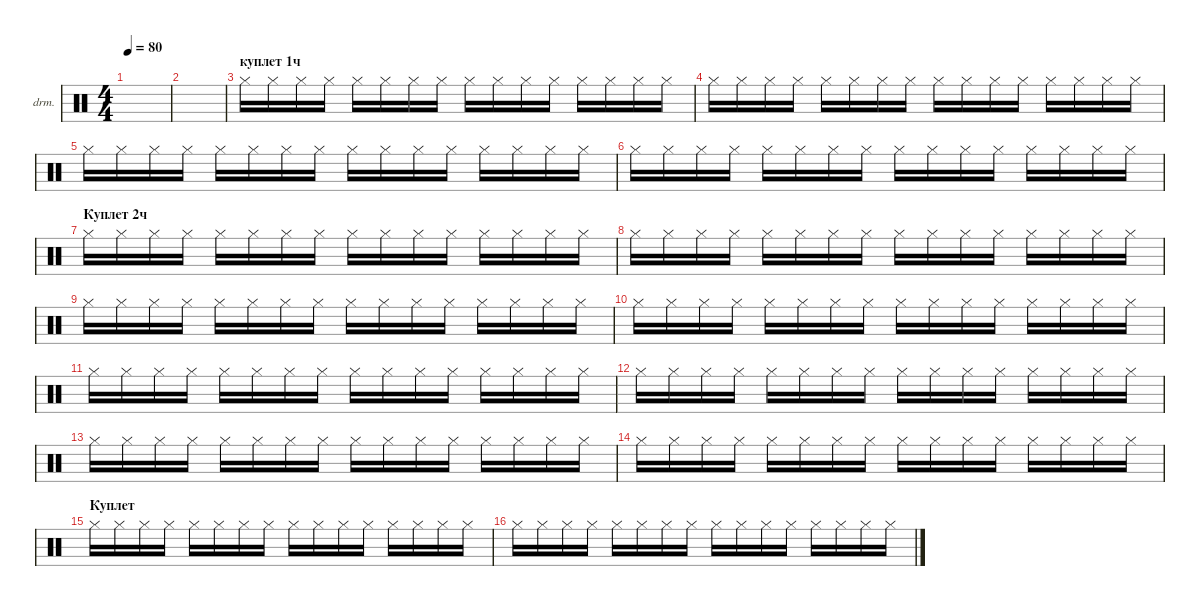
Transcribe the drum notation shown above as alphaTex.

\defaultSystemsLayout 4
\hideDynamics
\bracketExtendMode nobrackets
\firstSystemTrackNameOrientation horizontal
\otherSystemsTrackNameOrientation horizontal
\track ("Drumkit" "drm.") {instrument percussion}
\staff {score}
\articulation defaults
\ts (4 4)
\tempo 80
\clef neutral
\ks c
|
|
\section ("" "куплет 1ч")
"Hi-Hat (closed)".16{dy mp beam Down} "Hi-Hat (closed)".16{beam Down} "Hi-Hat (closed)".16{beam Down} "Hi-Hat (closed)".16{beam Down} "Hi-Hat (closed)".16{beam Down} "Hi-Hat (closed)".16{beam Down} "Hi-Hat (closed)".16{beam Down} "Hi-Hat (closed)".16{beam Down} "Hi-Hat (closed)".16{beam Down} "Hi-Hat (closed)".16{beam Down} "Hi-Hat (closed)".16{beam Down} "Hi-Hat (closed)".16{beam Down} "Hi-Hat (closed)".16{beam Down} "Hi-Hat (closed)".16{beam Down} "Hi-Hat (closed)".16{beam Down} "Hi-Hat (closed)".16{beam Down} |
"Hi-Hat (closed)".16{beam Down} "Hi-Hat (closed)".16{beam Down} "Hi-Hat (closed)".16{beam Down} "Hi-Hat (closed)".16{beam Down} "Hi-Hat (closed)".16{beam Down} "Hi-Hat (closed)".16{beam Down} "Hi-Hat (closed)".16{beam Down} "Hi-Hat (closed)".16{beam Down} "Hi-Hat (closed)".16{beam Down} "Hi-Hat (closed)".16{beam Down} "Hi-Hat (closed)".16{beam Down} "Hi-Hat (closed)".16{beam Down} "Hi-Hat (closed)".16{beam Down} "Hi-Hat (closed)".16{beam Down} "Hi-Hat (closed)".16{beam Down} "Hi-Hat (closed)".16{beam Down} |
"Hi-Hat (closed)".16{beam Down} "Hi-Hat (closed)".16{beam Down} "Hi-Hat (closed)".16{beam Down} "Hi-Hat (closed)".16{beam Down} "Hi-Hat (closed)".16{beam Down} "Hi-Hat (closed)".16{beam Down} "Hi-Hat (closed)".16{beam Down} "Hi-Hat (closed)".16{beam Down} "Hi-Hat (closed)".16{beam Down} "Hi-Hat (closed)".16{beam Down} "Hi-Hat (closed)".16{beam Down} "Hi-Hat (closed)".16{beam Down} "Hi-Hat (closed)".16{beam Down} "Hi-Hat (closed)".16{beam Down} "Hi-Hat (closed)".16{beam Down} "Hi-Hat (closed)".16{beam Down} |
"Hi-Hat (closed)".16{beam Down} "Hi-Hat (closed)".16{beam Down} "Hi-Hat (closed)".16{beam Down} "Hi-Hat (closed)".16{beam Down} "Hi-Hat (closed)".16{beam Down} "Hi-Hat (closed)".16{beam Down} "Hi-Hat (closed)".16{beam Down} "Hi-Hat (closed)".16{beam Down} "Hi-Hat (closed)".16{beam Down} "Hi-Hat (closed)".16{beam Down} "Hi-Hat (closed)".16{beam Down} "Hi-Hat (closed)".16{beam Down} "Hi-Hat (closed)".16{beam Down} "Hi-Hat (closed)".16{beam Down} "Hi-Hat (closed)".16{beam Down} "Hi-Hat (closed)".16{beam Down} |
\section ("" "Куплет 2ч")
"Hi-Hat (closed)".16{beam Down} "Hi-Hat (closed)".16{beam Down} "Hi-Hat (closed)".16{beam Down} "Hi-Hat (closed)".16{beam Down} "Hi-Hat (closed)".16{beam Down} "Hi-Hat (closed)".16{beam Down} "Hi-Hat (closed)".16{beam Down} "Hi-Hat (closed)".16{beam Down} "Hi-Hat (closed)".16{beam Down} "Hi-Hat (closed)".16{beam Down} "Hi-Hat (closed)".16{beam Down} "Hi-Hat (closed)".16{beam Down} "Hi-Hat (closed)".16{beam Down} "Hi-Hat (closed)".16{beam Down} "Hi-Hat (closed)".16{beam Down} "Hi-Hat (closed)".16{beam Down} |
"Hi-Hat (closed)".16{beam Down} "Hi-Hat (closed)".16{beam Down} "Hi-Hat (closed)".16{beam Down} "Hi-Hat (closed)".16{beam Down} "Hi-Hat (closed)".16{beam Down} "Hi-Hat (closed)".16{beam Down} "Hi-Hat (closed)".16{beam Down} "Hi-Hat (closed)".16{beam Down} "Hi-Hat (closed)".16{beam Down} "Hi-Hat (closed)".16{beam Down} "Hi-Hat (closed)".16{beam Down} "Hi-Hat (closed)".16{beam Down} "Hi-Hat (closed)".16{beam Down} "Hi-Hat (closed)".16{beam Down} "Hi-Hat (closed)".16{beam Down} "Hi-Hat (closed)".16{beam Down} |
"Hi-Hat (closed)".16{beam Down} "Hi-Hat (closed)".16{beam Down} "Hi-Hat (closed)".16{beam Down} "Hi-Hat (closed)".16{beam Down} "Hi-Hat (closed)".16{beam Down} "Hi-Hat (closed)".16{beam Down} "Hi-Hat (closed)".16{beam Down} "Hi-Hat (closed)".16{beam Down} "Hi-Hat (closed)".16{beam Down} "Hi-Hat (closed)".16{beam Down} "Hi-Hat (closed)".16{beam Down} "Hi-Hat (closed)".16{beam Down} "Hi-Hat (closed)".16{beam Down} "Hi-Hat (closed)".16{beam Down} "Hi-Hat (closed)".16{beam Down} "Hi-Hat (closed)".16{beam Down} |
"Hi-Hat (closed)".16{beam Down} "Hi-Hat (closed)".16{beam Down} "Hi-Hat (closed)".16{beam Down} "Hi-Hat (closed)".16{beam Down} "Hi-Hat (closed)".16{beam Down} "Hi-Hat (closed)".16{beam Down} "Hi-Hat (closed)".16{beam Down} "Hi-Hat (closed)".16{beam Down} "Hi-Hat (closed)".16{beam Down} "Hi-Hat (closed)".16{beam Down} "Hi-Hat (closed)".16{beam Down} "Hi-Hat (closed)".16{beam Down} "Hi-Hat (closed)".16{beam Down} "Hi-Hat (closed)".16{beam Down} "Hi-Hat (closed)".16{beam Down} "Hi-Hat (closed)".16{beam Down} |
"Hi-Hat (closed)".16{beam Down} "Hi-Hat (closed)".16{beam Down} "Hi-Hat (closed)".16{beam Down} "Hi-Hat (closed)".16{beam Down} "Hi-Hat (closed)".16{beam Down} "Hi-Hat (closed)".16{beam Down} "Hi-Hat (closed)".16{beam Down} "Hi-Hat (closed)".16{beam Down} "Hi-Hat (closed)".16{beam Down} "Hi-Hat (closed)".16{beam Down} "Hi-Hat (closed)".16{beam Down} "Hi-Hat (closed)".16{beam Down} "Hi-Hat (closed)".16{beam Down} "Hi-Hat (closed)".16{beam Down} "Hi-Hat (closed)".16{beam Down} "Hi-Hat (closed)".16{beam Down} |
"Hi-Hat (closed)".16{beam Down} "Hi-Hat (closed)".16{beam Down} "Hi-Hat (closed)".16{beam Down} "Hi-Hat (closed)".16{beam Down} "Hi-Hat (closed)".16{beam Down} "Hi-Hat (closed)".16{beam Down} "Hi-Hat (closed)".16{beam Down} "Hi-Hat (closed)".16{beam Down} "Hi-Hat (closed)".16{beam Down} "Hi-Hat (closed)".16{beam Down} "Hi-Hat (closed)".16{beam Down} "Hi-Hat (closed)".16{beam Down} "Hi-Hat (closed)".16{beam Down} "Hi-Hat (closed)".16{beam Down} "Hi-Hat (closed)".16{beam Down} "Hi-Hat (closed)".16{beam Down} |
"Hi-Hat (closed)".16{beam Down} "Hi-Hat (closed)".16{beam Down} "Hi-Hat (closed)".16{beam Down} "Hi-Hat (closed)".16{beam Down} "Hi-Hat (closed)".16{beam Down} "Hi-Hat (closed)".16{beam Down} "Hi-Hat (closed)".16{beam Down} "Hi-Hat (closed)".16{beam Down} "Hi-Hat (closed)".16{beam Down} "Hi-Hat (closed)".16{beam Down} "Hi-Hat (closed)".16{beam Down} "Hi-Hat (closed)".16{beam Down} "Hi-Hat (closed)".16{beam Down} "Hi-Hat (closed)".16{beam Down} "Hi-Hat (closed)".16{beam Down} "Hi-Hat (closed)".16{beam Down} |
"Hi-Hat (closed)".16{beam Down} "Hi-Hat (closed)".16{beam Down} "Hi-Hat (closed)".16{beam Down} "Hi-Hat (closed)".16{beam Down} "Hi-Hat (closed)".16{beam Down} "Hi-Hat (closed)".16{beam Down} "Hi-Hat (closed)".16{beam Down} "Hi-Hat (closed)".16{beam Down} "Hi-Hat (closed)".16{beam Down} "Hi-Hat (closed)".16{beam Down} "Hi-Hat (closed)".16{beam Down} "Hi-Hat (closed)".16{beam Down} "Hi-Hat (closed)".16{beam Down} "Hi-Hat (closed)".16{beam Down} "Hi-Hat (closed)".16{beam Down} "Hi-Hat (closed)".16{beam Down} |
\section ("" "Куплет")
"Hi-Hat (closed)".16{beam Down} "Hi-Hat (closed)".16{beam Down} "Hi-Hat (closed)".16{beam Down} "Hi-Hat (closed)".16{beam Down} "Hi-Hat (closed)".16{beam Down} "Hi-Hat (closed)".16{beam Down} "Hi-Hat (closed)".16{beam Down} "Hi-Hat (closed)".16{beam Down} "Hi-Hat (closed)".16{beam Down} "Hi-Hat (closed)".16{beam Down} "Hi-Hat (closed)".16{beam Down} "Hi-Hat (closed)".16{beam Down} "Hi-Hat (closed)".16{beam Down} "Hi-Hat (closed)".16{beam Down} "Hi-Hat (closed)".16{beam Down} "Hi-Hat (closed)".16{beam Down} |
"Hi-Hat (closed)".16{beam Down} "Hi-Hat (closed)".16{beam Down} "Hi-Hat (closed)".16{beam Down} "Hi-Hat (closed)".16{beam Down} "Hi-Hat (closed)".16{beam Down} "Hi-Hat (closed)".16{beam Down} "Hi-Hat (closed)".16{beam Down} "Hi-Hat (closed)".16{beam Down} "Hi-Hat (closed)".16{beam Down} "Hi-Hat (closed)".16{beam Down} "Hi-Hat (closed)".16{beam Down} "Hi-Hat (closed)".16{beam Down} "Hi-Hat (closed)".16{beam Down} "Hi-Hat (closed)".16{beam Down} "Hi-Hat (closed)".16{beam Down} "Hi-Hat (closed)".16{beam Down}
